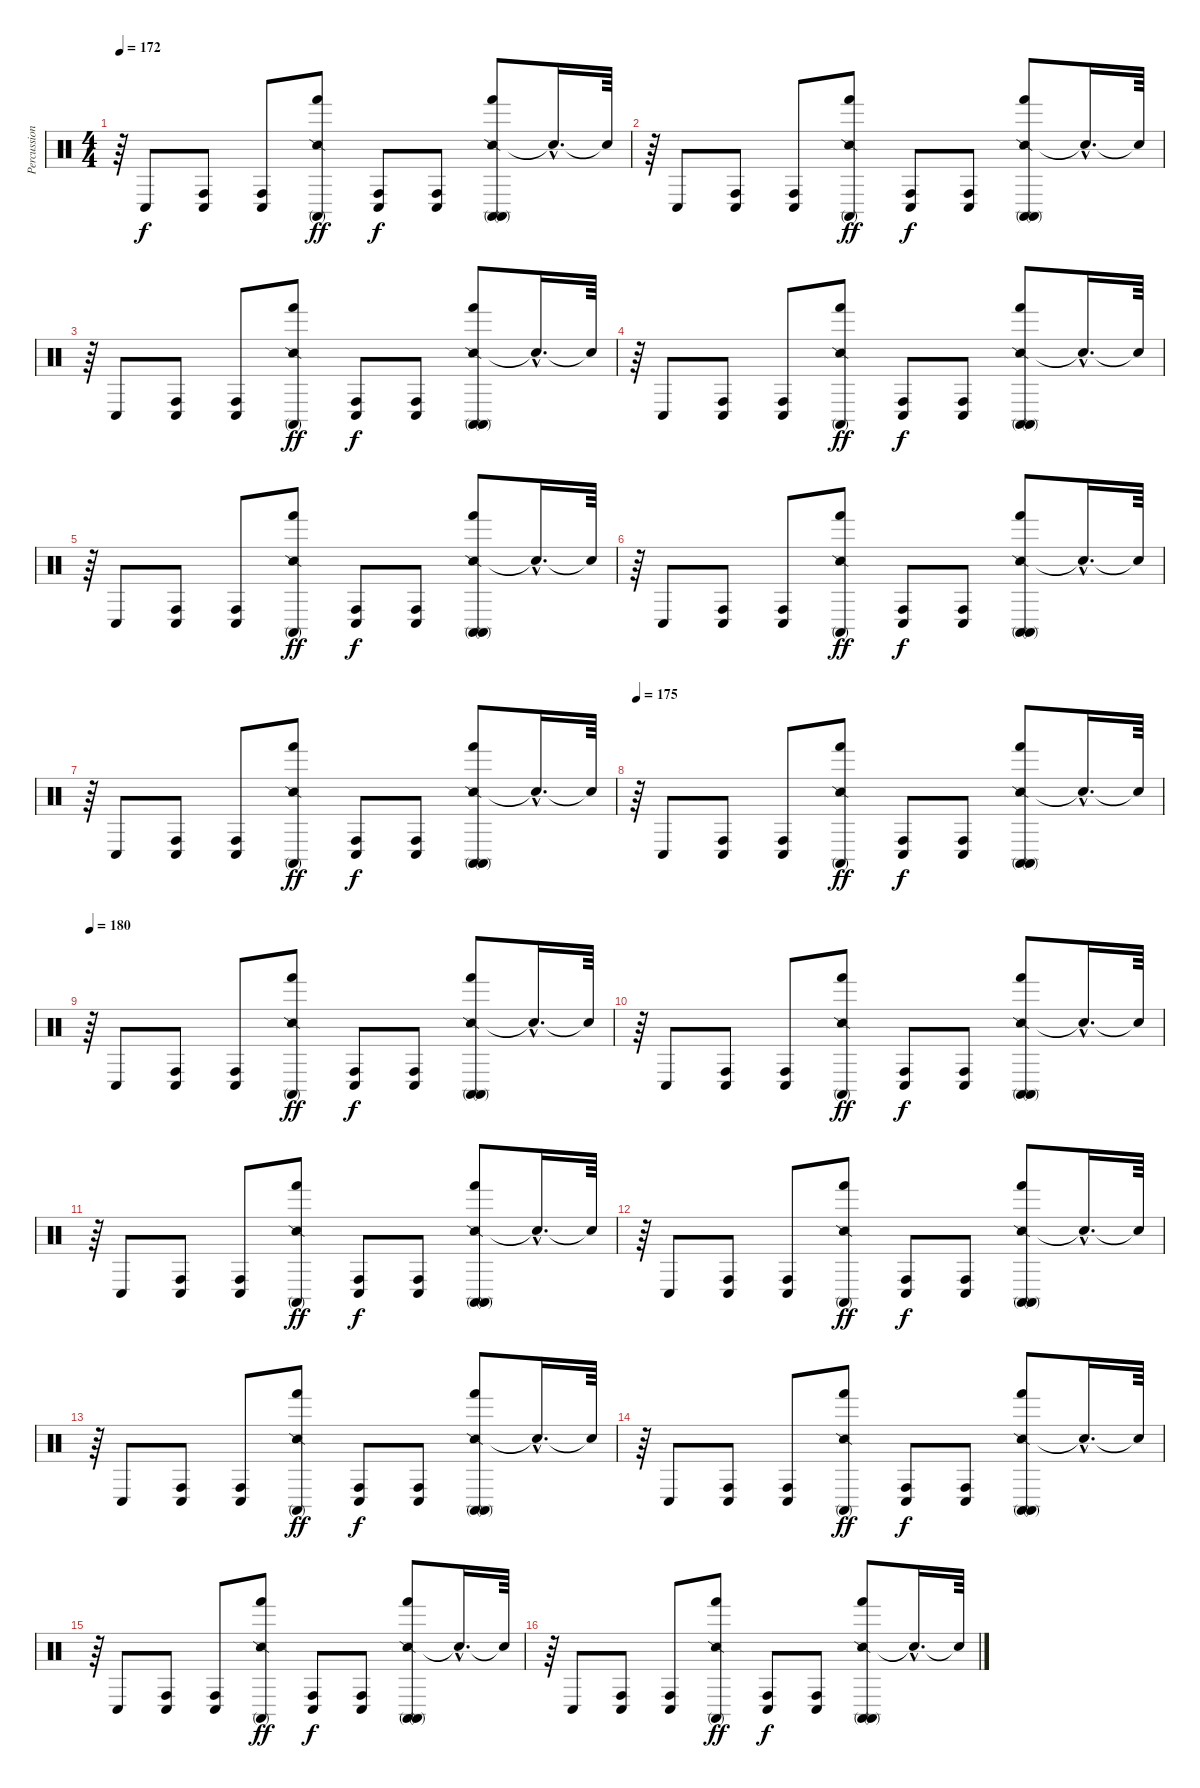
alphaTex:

\track ("Percussion" "Percussion") {instrument percussion}
\staff {score}
\articulation defaults
\ts (4 4)
\tempo 172
\clef neutral
\ks c
r.64{dy f} "Conga low (hit)".8 ("Conga high (hit)" "Conga low (hit)").8 ("Conga high (hit)" "Conga low (hit)").8 ("Snare (side stick) 2" "Hand (hit)" "Conga high (mute)").8{dy ff} ("Conga high (hit)" "Conga low (hit)").8{dy f} ("Conga high (hit)" "Conga low (hit)").8 ("Snare (side stick) 2" "Hand (hit)" "Conga high (mute)" "Conga high (mute)").8 "Snare (hit)"{hac t}.16{d} "Snare (hit)"{t}.64 |
r.64 "Conga low (hit)".8 ("Conga high (hit)" "Conga low (hit)").8 ("Conga high (hit)" "Conga low (hit)").8 ("Snare (side stick) 2" "Hand (hit)" "Conga high (mute)").8{dy ff} ("Conga high (hit)" "Conga low (hit)").8{dy f} ("Conga high (hit)" "Conga low (hit)").8 ("Snare (side stick) 2" "Hand (hit)" "Conga high (mute)" "Conga high (mute)").8 "Snare (hit)"{hac t}.16{d} "Snare (hit)"{t}.64 |
r.64 "Conga low (hit)".8 ("Conga high (hit)" "Conga low (hit)").8 ("Conga high (hit)" "Conga low (hit)").8 ("Snare (side stick) 2" "Hand (hit)" "Conga high (mute)").8{dy ff} ("Conga high (hit)" "Conga low (hit)").8{dy f} ("Conga high (hit)" "Conga low (hit)").8 ("Snare (side stick) 2" "Hand (hit)" "Conga high (mute)" "Conga high (mute)").8 "Snare (hit)"{hac t}.16{d} "Snare (hit)"{t}.64 |
r.64 "Conga low (hit)".8 ("Conga high (hit)" "Conga low (hit)").8 ("Conga high (hit)" "Conga low (hit)").8 ("Snare (side stick) 2" "Hand (hit)" "Conga high (mute)").8{dy ff} ("Conga high (hit)" "Conga low (hit)").8{dy f} ("Conga high (hit)" "Conga low (hit)").8 ("Snare (side stick) 2" "Hand (hit)" "Conga high (mute)" "Conga high (mute)").8 "Snare (hit)"{hac t}.16{d} "Snare (hit)"{t}.64 |
r.64 "Conga low (hit)".8 ("Conga high (hit)" "Conga low (hit)").8 ("Conga high (hit)" "Conga low (hit)").8 ("Snare (side stick) 2" "Hand (hit)" "Conga high (mute)").8{dy ff} ("Conga high (hit)" "Conga low (hit)").8{dy f} ("Conga high (hit)" "Conga low (hit)").8 ("Snare (side stick) 2" "Hand (hit)" "Conga high (mute)" "Conga high (mute)").8 "Snare (hit)"{hac t}.16{d} "Snare (hit)"{t}.64 |
r.64 "Conga low (hit)".8 ("Conga high (hit)" "Conga low (hit)").8 ("Conga high (hit)" "Conga low (hit)").8 ("Snare (side stick) 2" "Hand (hit)" "Conga high (mute)").8{dy ff} ("Conga high (hit)" "Conga low (hit)").8{dy f} ("Conga high (hit)" "Conga low (hit)").8 ("Snare (side stick) 2" "Hand (hit)" "Conga high (mute)" "Conga high (mute)").8 "Snare (hit)"{hac t}.16{d} "Snare (hit)"{t}.64 |
r.64 "Conga low (hit)".8 ("Conga high (hit)" "Conga low (hit)").8 ("Conga high (hit)" "Conga low (hit)").8 ("Snare (side stick) 2" "Hand (hit)" "Conga high (mute)").8{dy ff} ("Conga high (hit)" "Conga low (hit)").8{dy f} ("Conga high (hit)" "Conga low (hit)").8 ("Snare (side stick) 2" "Hand (hit)" "Conga high (mute)" "Conga high (mute)").8 "Snare (hit)"{hac t}.16{d} "Snare (hit)"{t}.64 |
\tempo 175
r.64 "Conga low (hit)".8 ("Conga high (hit)" "Conga low (hit)").8 ("Conga high (hit)" "Conga low (hit)").8 ("Snare (side stick) 2" "Hand (hit)" "Conga high (mute)").8{dy ff} ("Conga high (hit)" "Conga low (hit)").8{dy f} ("Conga high (hit)" "Conga low (hit)").8 ("Snare (side stick) 2" "Hand (hit)" "Conga high (mute)" "Conga high (mute)").8 "Snare (hit)"{hac t}.16{d} "Snare (hit)"{t}.64 |
\tempo 180
r.64 "Conga low (hit)".8 ("Conga high (hit)" "Conga low (hit)").8 ("Conga high (hit)" "Conga low (hit)").8 ("Snare (side stick) 2" "Hand (hit)" "Conga high (mute)").8{dy ff} ("Conga high (hit)" "Conga low (hit)").8{dy f} ("Conga high (hit)" "Conga low (hit)").8 ("Snare (side stick) 2" "Hand (hit)" "Conga high (mute)" "Conga high (mute)").8 "Snare (hit)"{hac t}.16{d} "Snare (hit)"{t}.64 |
r.64 "Conga low (hit)".8 ("Conga high (hit)" "Conga low (hit)").8 ("Conga high (hit)" "Conga low (hit)").8 ("Snare (side stick) 2" "Hand (hit)" "Conga high (mute)").8{dy ff} ("Conga high (hit)" "Conga low (hit)").8{dy f} ("Conga high (hit)" "Conga low (hit)").8 ("Snare (side stick) 2" "Hand (hit)" "Conga high (mute)" "Conga high (mute)").8 "Snare (hit)"{hac t}.16{d} "Snare (hit)"{t}.64 |
r.64 "Conga low (hit)".8 ("Conga high (hit)" "Conga low (hit)").8 ("Conga high (hit)" "Conga low (hit)").8 ("Snare (side stick) 2" "Hand (hit)" "Conga high (mute)").8{dy ff} ("Conga high (hit)" "Conga low (hit)").8{dy f} ("Conga high (hit)" "Conga low (hit)").8 ("Snare (side stick) 2" "Hand (hit)" "Conga high (mute)" "Conga high (mute)").8 "Snare (hit)"{hac t}.16{d} "Snare (hit)"{t}.64 |
r.64 "Conga low (hit)".8 ("Conga high (hit)" "Conga low (hit)").8 ("Conga high (hit)" "Conga low (hit)").8 ("Snare (side stick) 2" "Hand (hit)" "Conga high (mute)").8{dy ff} ("Conga high (hit)" "Conga low (hit)").8{dy f} ("Conga high (hit)" "Conga low (hit)").8 ("Snare (side stick) 2" "Hand (hit)" "Conga high (mute)" "Conga high (mute)").8 "Snare (hit)"{hac t}.16{d} "Snare (hit)"{t}.64 |
r.64 "Conga low (hit)".8 ("Conga high (hit)" "Conga low (hit)").8 ("Conga high (hit)" "Conga low (hit)").8 ("Snare (side stick) 2" "Hand (hit)" "Conga high (mute)").8{dy ff} ("Conga high (hit)" "Conga low (hit)").8{dy f} ("Conga high (hit)" "Conga low (hit)").8 ("Snare (side stick) 2" "Hand (hit)" "Conga high (mute)" "Conga high (mute)").8 "Snare (hit)"{hac t}.16{d} "Snare (hit)"{t}.64 |
r.64 "Conga low (hit)".8 ("Conga high (hit)" "Conga low (hit)").8 ("Conga high (hit)" "Conga low (hit)").8 ("Snare (side stick) 2" "Hand (hit)" "Conga high (mute)").8{dy ff} ("Conga high (hit)" "Conga low (hit)").8{dy f} ("Conga high (hit)" "Conga low (hit)").8 ("Snare (side stick) 2" "Hand (hit)" "Conga high (mute)" "Conga high (mute)").8 "Snare (hit)"{hac t}.16{d} "Snare (hit)"{t}.64 |
r.64 "Conga low (hit)".8 ("Conga high (hit)" "Conga low (hit)").8 ("Conga high (hit)" "Conga low (hit)").8 ("Snare (side stick) 2" "Hand (hit)" "Conga high (mute)").8{dy ff} ("Conga high (hit)" "Conga low (hit)").8{dy f} ("Conga high (hit)" "Conga low (hit)").8 ("Snare (side stick) 2" "Hand (hit)" "Conga high (mute)" "Conga high (mute)").8 "Snare (hit)"{hac t}.16{d} "Snare (hit)"{t}.64 |
r.64 "Conga low (hit)".8 ("Conga high (hit)" "Conga low (hit)").8 ("Conga high (hit)" "Conga low (hit)").8 ("Snare (side stick) 2" "Hand (hit)" "Conga high (mute)").8{dy ff} ("Conga high (hit)" "Conga low (hit)").8{dy f} ("Conga high (hit)" "Conga low (hit)").8 ("Snare (side stick) 2" "Hand (hit)" "Conga high (mute)" "Conga high (mute)").8 "Snare (hit)"{hac t}.16{d} "Snare (hit)"{t}.64
